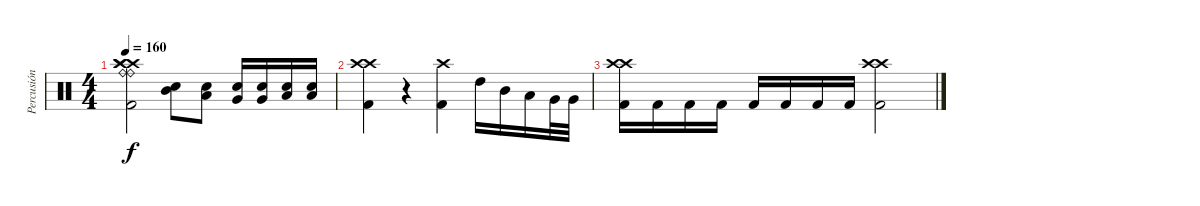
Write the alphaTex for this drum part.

\track ("Percusión" "Percusión") {instrument percussion}
\staff {score}
\articulation defaults
\ts (4 4)
\tempo 160
\clef neutral
\ks c
("Ride (bell)" "Ride (bell)" "Crash high (hit)" "Crash high (hit)" "Crash high (hit)" "Kick (hit) 2").2{dy f} ("Mid Tom (hit)" "Snare (hit) 2").8 ("Low Tom (hit)" "Snare (hit) 2").8 ("Very Low Tom (hit)" "Snare (hit) 2").16 ("Very Low Tom (hit)" "Snare (hit) 2").16 ("Low Floor Tom (hit)" "Snare (hit) 2").16 ("Low Floor Tom (hit)" "Snare (hit) 2").16 |
("Crash high (hit)" "Crash high (hit)" "Kick (hit) 2").4 r.4 ("Crash high (hit)" "Kick (hit) 2").4 "High Tom (hit)".16 "Mid Tom (hit)".16 "Low Tom (hit)".16 "Very Low Tom (hit)".32 "Very Low Tom (hit)".32 |
("Crash high (hit)" "Crash high (hit)" "Kick (hit) 2").16 "Kick (hit) 2".16 "Kick (hit) 2".16 "Kick (hit) 2".16 "Kick (hit) 2".16 "Kick (hit) 2".16 "Kick (hit) 2".16 "Kick (hit) 2".16 ("Crash high (hit)" "Crash high (hit)" "Kick (hit) 2").2
